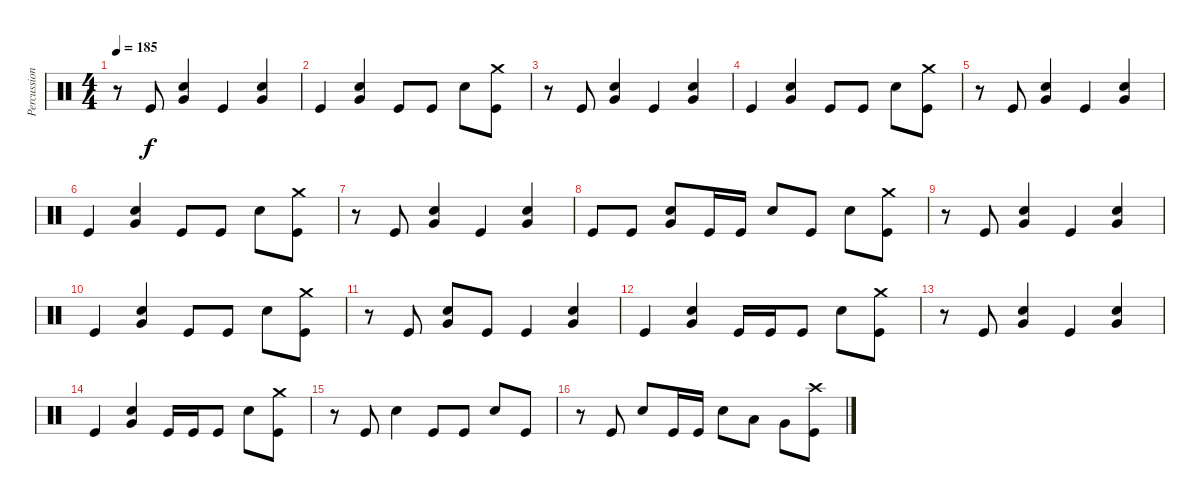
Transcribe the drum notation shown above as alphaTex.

\track ("Percussion" "Percussion") {instrument percussion}
\staff {score}
\articulation defaults
\ts (4 4)
\tempo 185
\clef neutral
\ks c
r.8{dy f} "Kick (hit)".8 ("Electric Snare (hit)" "Very Low Tom (hit)").4 "Kick (hit)".4 ("Electric Snare (hit)" "Very Low Tom (hit)").4 |
"Kick (hit)".4 ("Electric Snare (hit)" "Very Low Tom (hit)").4 "Kick (hit)".8 "Kick (hit)".8 "Electric Snare (hit)".8 ("Crash medium (hit)" "Kick (hit)").8 |
r.8 "Kick (hit)".8 ("Electric Snare (hit)" "Very Low Tom (hit)").4 "Kick (hit)".4 ("Electric Snare (hit)" "Very Low Tom (hit)").4 |
"Kick (hit)".4 ("Electric Snare (hit)" "Very Low Tom (hit)").4 "Kick (hit)".8 "Kick (hit)".8 "Electric Snare (hit)".8 ("Crash medium (hit)" "Kick (hit)").8 |
r.8 "Kick (hit)".8 ("Electric Snare (hit)" "Very Low Tom (hit)").4 "Kick (hit)".4 ("Electric Snare (hit)" "Very Low Tom (hit)").4 |
"Kick (hit)".4 ("Electric Snare (hit)" "Very Low Tom (hit)").4 "Kick (hit)".8 "Kick (hit)".8 "Electric Snare (hit)".8 ("Crash medium (hit)" "Kick (hit)").8 |
r.8 "Kick (hit)".8 ("Electric Snare (hit)" "Very Low Tom (hit)").4 "Kick (hit)".4 ("Electric Snare (hit)" "Very Low Tom (hit)").4 |
"Kick (hit)".8 "Kick (hit)".8 ("Electric Snare (hit)" "Very Low Tom (hit)").8 "Kick (hit)".16 "Kick (hit)".16 "Electric Snare (hit)".8 "Kick (hit)".8 "Electric Snare (hit)".8 ("Crash medium (hit)" "Kick (hit)").8 |
r.8 "Kick (hit)".8 ("Electric Snare (hit)" "Very Low Tom (hit)").4 "Kick (hit)".4 ("Electric Snare (hit)" "Very Low Tom (hit)").4 |
"Kick (hit)".4 ("Electric Snare (hit)" "Very Low Tom (hit)").4 "Kick (hit)".8 "Kick (hit)".8 "Electric Snare (hit)".8 ("Crash medium (hit)" "Kick (hit)").8 |
r.8 "Kick (hit)".8 ("Electric Snare (hit)" "Very Low Tom (hit)").8 "Kick (hit)".8 "Kick (hit)".4 ("Electric Snare (hit)" "Very Low Tom (hit)").4 |
"Kick (hit)".4 ("Electric Snare (hit)" "Very Low Tom (hit)").4 "Kick (hit)".16 "Kick (hit)".16 "Kick (hit)".8 "Electric Snare (hit)".8 ("Crash medium (hit)" "Kick (hit)").8 |
r.8 "Kick (hit)".8 ("Electric Snare (hit)" "Very Low Tom (hit)").4 "Kick (hit)".4 ("Electric Snare (hit)" "Very Low Tom (hit)").4 |
"Kick (hit)".4 ("Electric Snare (hit)" "Very Low Tom (hit)").4 "Kick (hit)".16 "Kick (hit)".16 "Kick (hit)".8 "Electric Snare (hit)".8 ("Crash medium (hit)" "Kick (hit)").8 |
r.8 "Kick (hit)".8 "Electric Snare (hit)".4 "Kick (hit)".8 "Kick (hit)".8 "Electric Snare (hit)".8 "Kick (hit)".8 |
r.8 "Kick (hit)".8 "Electric Snare (hit)".8 "Kick (hit)".16 "Kick (hit)".16 "Electric Snare (hit)".8 "Low Tom (hit)".8 "Very Low Tom (hit)".8 ("Crash high (hit)" "Kick (hit)").8
